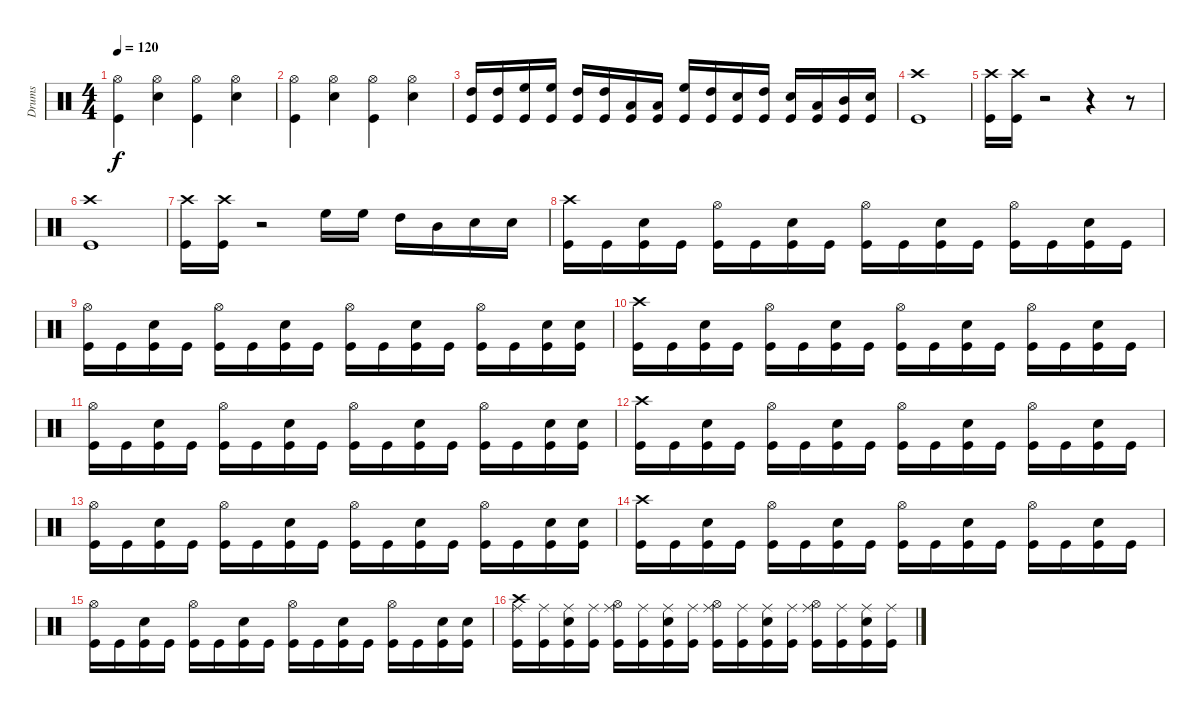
\track ("Drums" "Drums") {instrument percussion}
\staff {score}
\articulation defaults
\ts (4 4)
\tempo 120
\clef neutral
\ks c
("Hi-Hat (open)" "Kick (hit)").4{dy f} ("Hi-Hat (open)" "Snare (hit) 2").4 ("Hi-Hat (open)" "Kick (hit)").4 ("Hi-Hat (open)" "Snare (hit) 2").4 |
("Hi-Hat (open)" "Kick (hit)").4 ("Hi-Hat (open)" "Snare (hit) 2").4 ("Hi-Hat (open)" "Kick (hit)").4 ("Hi-Hat (open)" "Snare (hit) 2").4 |
("High Tom (hit)" "Kick (hit)").16 ("High Tom (hit)" "Kick (hit)").16 ("High Floor Tom (hit)" "Kick (hit)").16 ("High Floor Tom (hit)" "Kick (hit)").16 ("High Tom (hit)" "Kick (hit)").16 ("High Tom (hit)" "Kick (hit)").16 ("Low Tom (hit)" "Kick (hit)").16 ("Low Tom (hit)" "Kick (hit)").16 ("High Floor Tom (hit)" "Kick (hit)").16 ("High Tom (hit)" "Kick (hit)").16 ("Snare (hit) 2" "Kick (hit)").16 ("High Tom (hit)" "Kick (hit)").16 ("Snare (hit) 2" "Kick (hit)").16 ("Low Tom (hit)" "Kick (hit)").16 ("Mid Tom (hit)" "Kick (hit)").16 ("Snare (hit) 2" "Kick (hit)").16 |
("Crash high (hit)" "Kick (hit)").1 |
("Crash high (hit)" "Kick (hit)").16 ("Crash high (hit)" "Kick (hit)").16 r.2 r.4 r.8 |
("Crash high (hit)" "Kick (hit)").1 |
("Crash high (hit)" "Kick (hit)").16 ("Crash high (hit)" "Kick (hit)").16 r.2 "High Floor Tom (hit)".16 "High Floor Tom (hit)".16 "High Tom (hit)".16 "Mid Tom (hit)".16 "Snare (hit) 2".16 "Snare (hit) 2".16 |
("Crash high (hit)" "Kick (hit)").16 "Kick (hit)".16 ("Electric Snare (hit)" "Kick (hit)").16 "Kick (hit)".16 ("Hi-Hat (open)" "Kick (hit)").16 "Kick (hit)".16 ("Electric Snare (hit)" "Kick (hit)").16 "Kick (hit)".16 ("Hi-Hat (open)" "Kick (hit)").16 "Kick (hit)".16 ("Electric Snare (hit)" "Kick (hit)").16 "Kick (hit)".16 ("Hi-Hat (open)" "Kick (hit)").16 "Kick (hit)".16 ("Electric Snare (hit)" "Kick (hit)").16 "Kick (hit)".16 |
("Hi-Hat (open)" "Kick (hit)").16 "Kick (hit)".16 ("Electric Snare (hit)" "Kick (hit)").16 "Kick (hit)".16 ("Hi-Hat (open)" "Kick (hit)").16 "Kick (hit)".16 ("Electric Snare (hit)" "Kick (hit)").16 "Kick (hit)".16 ("Hi-Hat (open)" "Kick (hit)").16 "Kick (hit)".16 ("Electric Snare (hit)" "Kick (hit)").16 "Kick (hit)".16 ("Hi-Hat (open)" "Kick (hit)").16 "Kick (hit)".16 ("Snare (hit) 2" "Kick (hit)").16 ("Snare (hit) 2" "Kick (hit)").16 |
("Crash high (hit)" "Kick (hit)").16 "Kick (hit)".16 ("Electric Snare (hit)" "Kick (hit)").16 "Kick (hit)".16 ("Hi-Hat (open)" "Kick (hit)").16 "Kick (hit)".16 ("Electric Snare (hit)" "Kick (hit)").16 "Kick (hit)".16 ("Hi-Hat (open)" "Kick (hit)").16 "Kick (hit)".16 ("Electric Snare (hit)" "Kick (hit)").16 "Kick (hit)".16 ("Hi-Hat (open)" "Kick (hit)").16 "Kick (hit)".16 ("Electric Snare (hit)" "Kick (hit)").16 "Kick (hit)".16 |
("Hi-Hat (open)" "Kick (hit)").16 "Kick (hit)".16 ("Electric Snare (hit)" "Kick (hit)").16 "Kick (hit)".16 ("Hi-Hat (open)" "Kick (hit)").16 "Kick (hit)".16 ("Electric Snare (hit)" "Kick (hit)").16 "Kick (hit)".16 ("Hi-Hat (open)" "Kick (hit)").16 "Kick (hit)".16 ("Electric Snare (hit)" "Kick (hit)").16 "Kick (hit)".16 ("Hi-Hat (open)" "Kick (hit)").16 "Kick (hit)".16 ("Snare (hit) 2" "Kick (hit)").16 ("Snare (hit) 2" "Kick (hit)").16 |
("Crash high (hit)" "Kick (hit)").16 "Kick (hit)".16 ("Electric Snare (hit)" "Kick (hit)").16 "Kick (hit)".16 ("Hi-Hat (open)" "Kick (hit)").16 "Kick (hit)".16 ("Electric Snare (hit)" "Kick (hit)").16 "Kick (hit)".16 ("Hi-Hat (open)" "Kick (hit)").16 "Kick (hit)".16 ("Electric Snare (hit)" "Kick (hit)").16 "Kick (hit)".16 ("Hi-Hat (open)" "Kick (hit)").16 "Kick (hit)".16 ("Electric Snare (hit)" "Kick (hit)").16 "Kick (hit)".16 |
("Hi-Hat (open)" "Kick (hit)").16 "Kick (hit)".16 ("Electric Snare (hit)" "Kick (hit)").16 "Kick (hit)".16 ("Hi-Hat (open)" "Kick (hit)").16 "Kick (hit)".16 ("Electric Snare (hit)" "Kick (hit)").16 "Kick (hit)".16 ("Hi-Hat (open)" "Kick (hit)").16 "Kick (hit)".16 ("Electric Snare (hit)" "Kick (hit)").16 "Kick (hit)".16 ("Hi-Hat (open)" "Kick (hit)").16 "Kick (hit)".16 ("Snare (hit) 2" "Kick (hit)").16 ("Snare (hit) 2" "Kick (hit)").16 |
("Crash high (hit)" "Kick (hit)").16 "Kick (hit)".16 ("Electric Snare (hit)" "Kick (hit)").16 "Kick (hit)".16 ("Hi-Hat (open)" "Kick (hit)").16 "Kick (hit)".16 ("Electric Snare (hit)" "Kick (hit)").16 "Kick (hit)".16 ("Hi-Hat (open)" "Kick (hit)").16 "Kick (hit)".16 ("Electric Snare (hit)" "Kick (hit)").16 "Kick (hit)".16 ("Hi-Hat (open)" "Kick (hit)").16 "Kick (hit)".16 ("Electric Snare (hit)" "Kick (hit)").16 "Kick (hit)".16 |
("Hi-Hat (open)" "Kick (hit)").16 "Kick (hit)".16 ("Electric Snare (hit)" "Kick (hit)").16 "Kick (hit)".16 ("Hi-Hat (open)" "Kick (hit)").16 "Kick (hit)".16 ("Electric Snare (hit)" "Kick (hit)").16 "Kick (hit)".16 ("Hi-Hat (open)" "Kick (hit)").16 "Kick (hit)".16 ("Electric Snare (hit)" "Kick (hit)").16 "Kick (hit)".16 ("Hi-Hat (open)" "Kick (hit)").16 "Kick (hit)".16 ("Snare (hit) 2" "Kick (hit)").16 ("Snare (hit) 2" "Kick (hit)").16 |
("Ride (middle)" "Crash high (hit)" "Kick (hit)").16 ("Ride (middle)" "Kick (hit)").16 ("Ride (middle)" "Electric Snare (hit)" "Kick (hit)").16 ("Ride (middle)" "Kick (hit)").16 ("Ride (middle)" "Hi-Hat (open)" "Kick (hit)").16 ("Ride (middle)" "Kick (hit)").16 ("Ride (middle)" "Electric Snare (hit)" "Kick (hit)").16 ("Ride (middle)" "Kick (hit)").16 ("Ride (middle)" "Hi-Hat (open)" "Kick (hit)").16 ("Ride (middle)" "Kick (hit)").16 ("Ride (middle)" "Electric Snare (hit)" "Kick (hit)").16 ("Ride (middle)" "Kick (hit)").16 ("Ride (middle)" "Hi-Hat (open)" "Kick (hit)").16 ("Ride (middle)" "Kick (hit)").16 ("Ride (middle)" "Electric Snare (hit)" "Kick (hit)").16 ("Ride (middle)" "Kick (hit)").16
